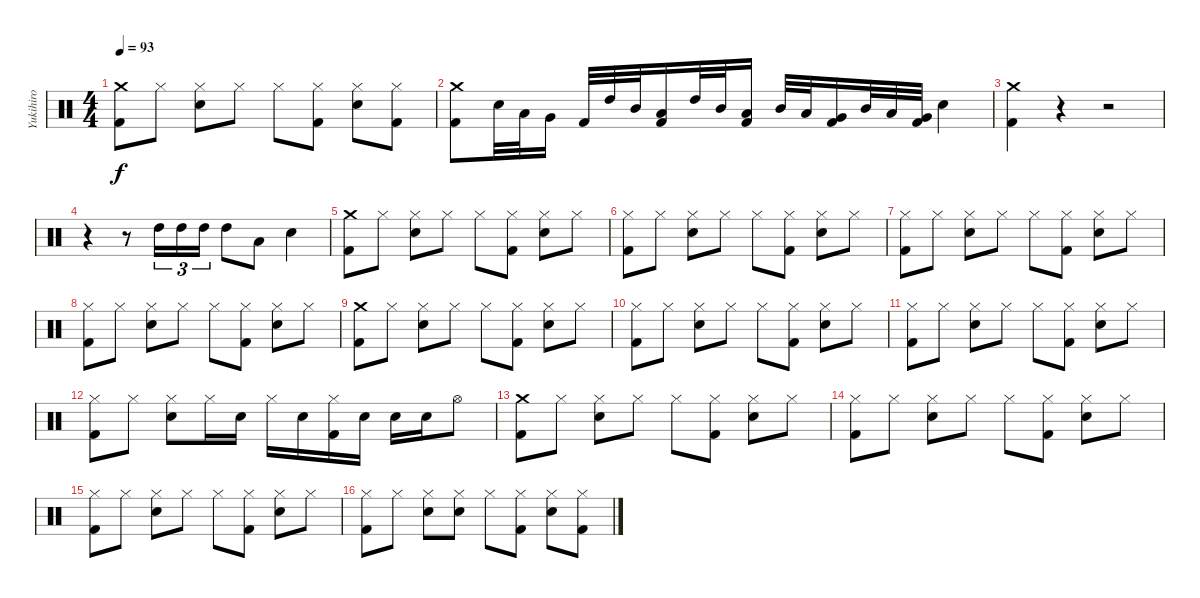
\track ("Yukihiro" "Yukihiro") {instrument percussion}
\staff {score}
\articulation defaults
\ts (4 4)
\tempo 93
\clef neutral
\ks c
("Crash medium (hit)" "Kick (hit) 2").8{dy f} "Hi-Hat (closed)".8 ("Hi-Hat (closed)" "Snare (hit) 2").8 "Hi-Hat (closed)".8 "Hi-Hat (closed)".8 ("Hi-Hat (closed)" "Kick (hit) 2").8 ("Hi-Hat (closed)" "Snare (hit) 2").8 ("Hi-Hat (closed)" "Kick (hit) 2").8 |
("Crash medium (hit)" "Kick (hit) 2").8 "Snare (hit) 2".32 "Low Tom (hit)".32 "Very Low Tom (hit)".16 "Kick (hit) 2".32 "High Tom (hit)".32 "Mid Tom (hit)".32 ("Low Tom (hit)" "Kick (hit) 2").16 "High Tom (hit)".32 "Mid Tom (hit)".32 ("Low Tom (hit)" "Kick (hit) 2").16 "Mid Tom (hit)".32 "Low Tom (hit)".32 ("Very Low Tom (hit)" "Kick (hit) 2").16 "Mid Tom (hit)".32 "Low Tom (hit)".32 ("Very Low Tom (hit)" "Kick (hit) 2").32 "Snare (hit) 2".4 |
("Crash medium (hit)" "Kick (hit) 2").4 r.4 r.2 |
r.4 r.8 "High Tom (hit)".16{tu (3 2)} "High Tom (hit)".16{tu (3 2)} "High Tom (hit)".16{tu (3 2)} "High Tom (hit)".8 "Low Tom (hit)".8 "Snare (hit) 2".4 |
("Crash medium (hit)" "Kick (hit) 2").8 "Hi-Hat (closed)".8 ("Hi-Hat (closed)" "Snare (hit) 2").8 "Hi-Hat (closed)".8 "Hi-Hat (closed)".8 ("Hi-Hat (closed)" "Kick (hit) 2").8 ("Hi-Hat (closed)" "Snare (hit) 2").8 "Hi-Hat (closed)".8 |
("Hi-Hat (closed)" "Kick (hit) 2").8 "Hi-Hat (closed)".8 ("Hi-Hat (closed)" "Snare (hit) 2").8 "Hi-Hat (closed)".8 "Hi-Hat (closed)".8 ("Hi-Hat (closed)" "Kick (hit) 2").8 ("Hi-Hat (closed)" "Snare (hit) 2").8 "Hi-Hat (closed)".8 |
("Hi-Hat (closed)" "Kick (hit) 2").8 "Hi-Hat (closed)".8 ("Hi-Hat (closed)" "Snare (hit) 2").8 "Hi-Hat (closed)".8 "Hi-Hat (closed)".8 ("Hi-Hat (closed)" "Kick (hit) 2").8 ("Hi-Hat (closed)" "Snare (hit) 2").8 "Hi-Hat (closed)".8 |
("Hi-Hat (closed)" "Kick (hit) 2").8 "Hi-Hat (closed)".8 ("Hi-Hat (closed)" "Snare (hit) 2").8 "Hi-Hat (closed)".8 "Hi-Hat (closed)".8 ("Hi-Hat (closed)" "Kick (hit) 2").8 ("Hi-Hat (closed)" "Snare (hit) 2").8 "Hi-Hat (closed)".8 |
("Crash medium (hit)" "Kick (hit) 2").8 "Hi-Hat (closed)".8 ("Hi-Hat (closed)" "Snare (hit) 2").8 "Hi-Hat (closed)".8 "Hi-Hat (closed)".8 ("Hi-Hat (closed)" "Kick (hit) 2").8 ("Hi-Hat (closed)" "Snare (hit) 2").8 "Hi-Hat (closed)".8 |
("Hi-Hat (closed)" "Kick (hit) 2").8 "Hi-Hat (closed)".8 ("Hi-Hat (closed)" "Snare (hit) 2").8 "Hi-Hat (closed)".8 "Hi-Hat (closed)".8 ("Hi-Hat (closed)" "Kick (hit) 2").8 ("Hi-Hat (closed)" "Snare (hit) 2").8 "Hi-Hat (closed)".8 |
("Hi-Hat (closed)" "Kick (hit) 2").8 "Hi-Hat (closed)".8 ("Hi-Hat (closed)" "Snare (hit) 2").8 "Hi-Hat (closed)".8 "Hi-Hat (closed)".8 ("Hi-Hat (closed)" "Kick (hit) 2").8 ("Hi-Hat (closed)" "Snare (hit) 2").8 "Hi-Hat (closed)".8 |
("Hi-Hat (closed)" "Kick (hit) 2").8 "Hi-Hat (closed)".8 ("Hi-Hat (closed)" "Snare (hit) 2").8 "Hi-Hat (closed)".16 "Snare (hit) 2".16 "Hi-Hat (closed)".16 "Snare (hit) 2".16 ("Hi-Hat (closed)" "Kick (hit) 2").16 "Snare (hit) 2".16 "Snare (hit) 2".16 "Snare (hit) 2".16 "Hi-Hat (open)".8 |
("Crash medium (hit)" "Kick (hit) 2").8 "Hi-Hat (closed)".8 ("Hi-Hat (closed)" "Snare (hit) 2").8 "Hi-Hat (closed)".8 "Hi-Hat (closed)".8 ("Hi-Hat (closed)" "Kick (hit) 2").8 ("Hi-Hat (closed)" "Snare (hit) 2").8 "Hi-Hat (closed)".8 |
("Hi-Hat (closed)" "Kick (hit) 2").8 "Hi-Hat (closed)".8 ("Hi-Hat (closed)" "Snare (hit) 2").8 "Hi-Hat (closed)".8 "Hi-Hat (closed)".8 ("Hi-Hat (closed)" "Kick (hit) 2").8 ("Hi-Hat (closed)" "Snare (hit) 2").8 "Hi-Hat (closed)".8 |
("Hi-Hat (closed)" "Kick (hit) 2").8 "Hi-Hat (closed)".8 ("Hi-Hat (closed)" "Snare (hit) 2").8 "Hi-Hat (closed)".8 "Hi-Hat (closed)".8 ("Hi-Hat (closed)" "Kick (hit) 2").8 ("Hi-Hat (closed)" "Snare (hit) 2").8 "Hi-Hat (closed)".8 |
("Hi-Hat (closed)" "Kick (hit) 2").8 "Hi-Hat (closed)".8 ("Hi-Hat (closed)" "Snare (hit) 2").8 ("Hi-Hat (closed)" "Snare (hit) 2").8 "Hi-Hat (closed)".8 ("Hi-Hat (closed)" "Kick (hit) 2").8 ("Hi-Hat (closed)" "Snare (hit) 2").8 ("Hi-Hat (closed)" "Kick (hit) 2").8
